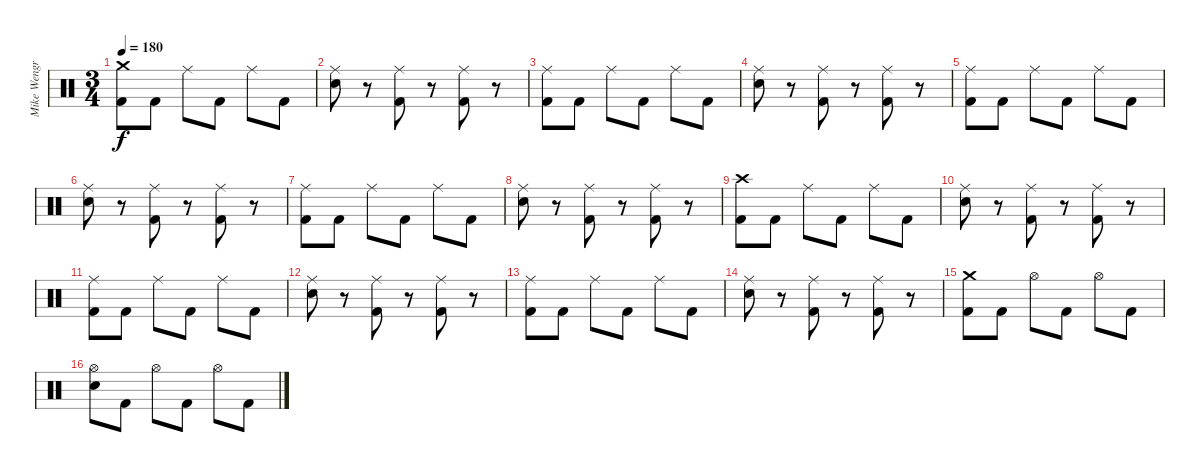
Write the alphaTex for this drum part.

\track ("Mike Wengren" "Mike Wengr") {instrument percussion}
\staff {score}
\articulation defaults
\ts (3 4)
\tempo 180
\clef neutral
\ks c
("Crash medium (hit)" "Kick (hit) 2").8{dy f} "Kick (hit) 2".8 "Ride (middle)".8 "Kick (hit) 2".8 "Ride (middle)".8 "Kick (hit) 2".8 |
("Ride (middle)" "Snare (hit) 2").8 r.8 ("Ride (middle)" "Kick (hit) 2").8 r.8 ("Ride (middle)" "Kick (hit) 2").8 r.8 |
("Ride (middle)" "Kick (hit) 2").8 "Kick (hit) 2".8 "Ride (middle)".8 "Kick (hit) 2".8 "Ride (middle)".8 "Kick (hit) 2".8 |
("Ride (middle)" "Snare (hit) 2").8 r.8 ("Ride (middle)" "Kick (hit) 2").8 r.8 ("Ride (middle)" "Kick (hit) 2").8 r.8 |
("Ride (middle)" "Kick (hit) 2").8 "Kick (hit) 2".8 "Ride (middle)".8 "Kick (hit) 2".8 "Ride (middle)".8 "Kick (hit) 2".8 |
("Ride (middle)" "Snare (hit) 2").8 r.8 ("Ride (middle)" "Kick (hit) 2").8 r.8 ("Ride (middle)" "Kick (hit) 2").8 r.8 |
("Ride (middle)" "Kick (hit) 2").8 "Kick (hit) 2".8 "Ride (middle)".8 "Kick (hit) 2".8 "Ride (middle)".8 "Kick (hit) 2".8 |
("Ride (middle)" "Snare (hit) 2").8 r.8 ("Ride (middle)" "Kick (hit) 2").8 r.8 ("Ride (middle)" "Kick (hit) 2").8 r.8 |
("Crash high (hit)" "Kick (hit) 2").8 "Kick (hit) 2".8 "Ride (middle)".8 "Kick (hit) 2".8 "Ride (middle)".8 "Kick (hit) 2".8 |
("Ride (middle)" "Snare (hit) 2").8 r.8 ("Ride (middle)" "Kick (hit) 2").8 r.8 ("Ride (middle)" "Kick (hit) 2").8 r.8 |
("Ride (middle)" "Kick (hit) 2").8 "Kick (hit) 2".8 "Ride (middle)".8 "Kick (hit) 2".8 "Ride (middle)".8 "Kick (hit) 2".8 |
("Ride (middle)" "Snare (hit) 2").8 r.8 ("Ride (middle)" "Kick (hit) 2").8 r.8 ("Ride (middle)" "Kick (hit) 2").8 r.8 |
("Ride (middle)" "Kick (hit) 2").8 "Kick (hit) 2".8 "Ride (middle)".8 "Kick (hit) 2".8 "Ride (middle)".8 "Kick (hit) 2".8 |
("Ride (middle)" "Snare (hit) 2").8 r.8 ("Ride (middle)" "Kick (hit) 2").8 r.8 ("Ride (middle)" "Kick (hit) 2").8 r.8 |
("Crash medium (hit)" "Kick (hit) 2").8 "Kick (hit) 2".8 "Hi-Hat (open)".8 "Kick (hit) 2".8 "Hi-Hat (open)".8 "Kick (hit) 2".8 |
("Hi-Hat (open)" "Snare (hit) 2").8 "Kick (hit) 2".8 "Hi-Hat (open)".8 "Kick (hit) 2".8 "Hi-Hat (open)".8 "Kick (hit) 2".8
